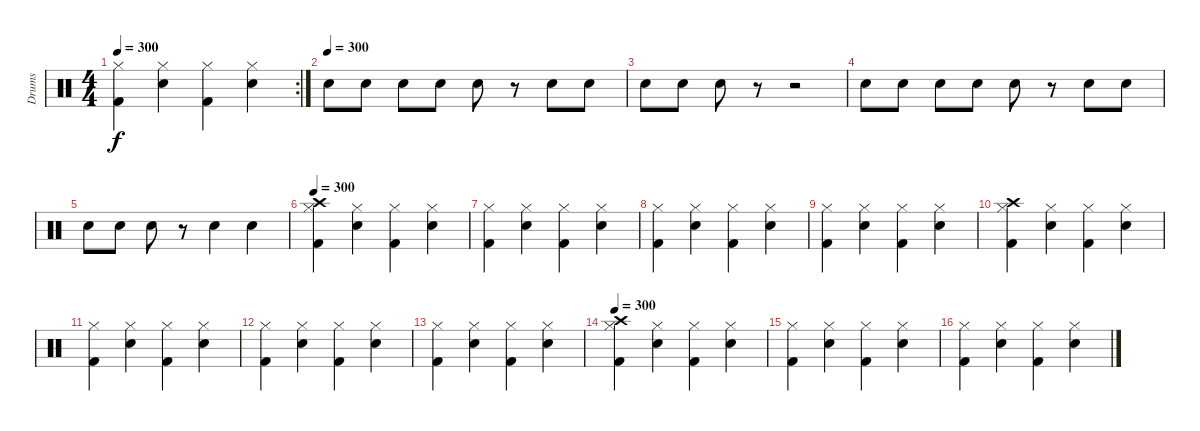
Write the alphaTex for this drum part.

\track ("Drums" "Drums") {instrument percussion}
\staff {score}
\articulation defaults
\rc 2
\ts (4 4)
\tempo 300
\clef neutral
\ks c
("Hi-Hat (closed)" "Kick (hit) 2").4{dy f} ("Hi-Hat (closed)" "Snare (hit) 2").4 ("Hi-Hat (closed)" "Kick (hit) 2").4 ("Hi-Hat (closed)" "Snare (hit) 2").4 |
\tempo (300)
"Snare (hit) 2".8 "Snare (hit) 2".8 "Snare (hit) 2".8 "Snare (hit) 2".8 "Snare (hit) 2".8 r.8 "Snare (hit) 2".8 "Snare (hit) 2".8 |
"Snare (hit) 2".8 "Snare (hit) 2".8 "Snare (hit) 2".8 r.8 r.2 |
"Snare (hit) 2".8 "Snare (hit) 2".8 "Snare (hit) 2".8 "Snare (hit) 2".8 "Snare (hit) 2".8 r.8 "Snare (hit) 2".8 "Snare (hit) 2".8 |
"Snare (hit) 2".8 "Snare (hit) 2".8 "Snare (hit) 2".8 r.8 "Snare (hit) 2".4 "Snare (hit) 2".4 |
\tempo 300
("Hi-Hat (closed)" "Kick (hit) 2" "Crash high (hit)").4 ("Hi-Hat (closed)" "Snare (hit) 2").4 ("Hi-Hat (closed)" "Kick (hit) 2").4 ("Hi-Hat (closed)" "Snare (hit) 2").4 |
("Hi-Hat (closed)" "Kick (hit) 2").4 ("Hi-Hat (closed)" "Snare (hit) 2").4 ("Hi-Hat (closed)" "Kick (hit) 2").4 ("Hi-Hat (closed)" "Snare (hit) 2").4 |
("Hi-Hat (closed)" "Kick (hit) 2").4 ("Hi-Hat (closed)" "Snare (hit) 2").4 ("Hi-Hat (closed)" "Kick (hit) 2").4 ("Hi-Hat (closed)" "Snare (hit) 2").4 |
("Hi-Hat (closed)" "Kick (hit) 2").4 ("Hi-Hat (closed)" "Snare (hit) 2").4 ("Hi-Hat (closed)" "Kick (hit) 2").4 ("Hi-Hat (closed)" "Snare (hit) 2").4 |
("Hi-Hat (closed)" "Kick (hit) 2" "Crash high (hit)").4 ("Hi-Hat (closed)" "Snare (hit) 2").4 ("Hi-Hat (closed)" "Kick (hit) 2").4 ("Hi-Hat (closed)" "Snare (hit) 2").4 |
("Hi-Hat (closed)" "Kick (hit) 2").4 ("Hi-Hat (closed)" "Snare (hit) 2").4 ("Hi-Hat (closed)" "Kick (hit) 2").4 ("Hi-Hat (closed)" "Snare (hit) 2").4 |
("Hi-Hat (closed)" "Kick (hit) 2").4 ("Hi-Hat (closed)" "Snare (hit) 2").4 ("Hi-Hat (closed)" "Kick (hit) 2").4 ("Hi-Hat (closed)" "Snare (hit) 2").4 |
("Hi-Hat (closed)" "Kick (hit) 2").4 ("Hi-Hat (closed)" "Snare (hit) 2").4 ("Hi-Hat (closed)" "Kick (hit) 2").4 ("Hi-Hat (closed)" "Snare (hit) 2").4 |
\tempo 300
("Hi-Hat (closed)" "Kick (hit) 2" "Crash high (hit)").4 ("Hi-Hat (closed)" "Snare (hit) 2").4 ("Hi-Hat (closed)" "Kick (hit) 2").4 ("Hi-Hat (closed)" "Snare (hit) 2").4 |
("Hi-Hat (closed)" "Kick (hit) 2").4 ("Hi-Hat (closed)" "Snare (hit) 2").4 ("Hi-Hat (closed)" "Kick (hit) 2").4 ("Hi-Hat (closed)" "Snare (hit) 2").4 |
("Hi-Hat (closed)" "Kick (hit) 2").4 ("Hi-Hat (closed)" "Snare (hit) 2").4 ("Hi-Hat (closed)" "Kick (hit) 2").4 ("Hi-Hat (closed)" "Snare (hit) 2").4
